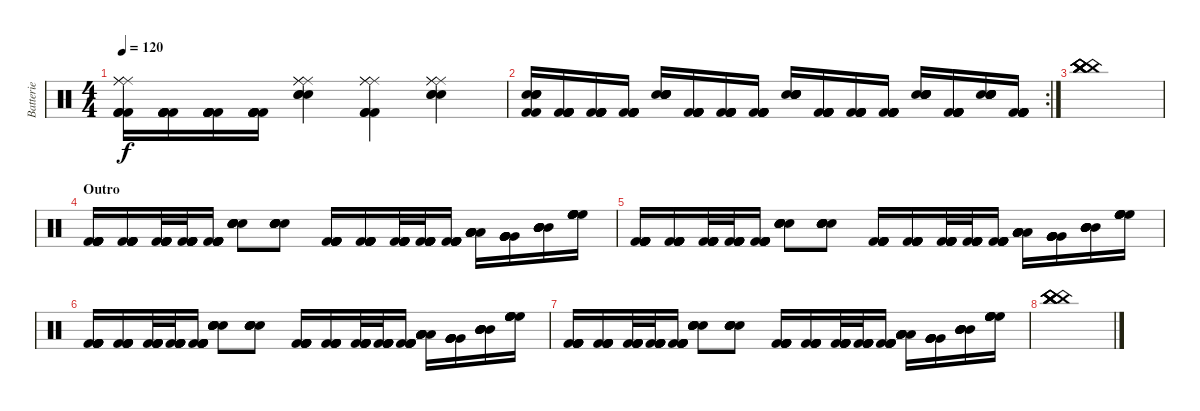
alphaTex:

\track ("Batterie" "Batterie") {instrument percussion}
\staff {score}
\articulation defaults
\ts (4 4)
\tempo 120
\clef neutral
\ks c
("Ride (middle)" "Ride (middle)" "Ride (middle)" "Kick (hit) 2" "Kick (hit) 2" "Kick (hit) 2").16{dy f} ("Kick (hit) 2" "Kick (hit) 2" "Kick (hit) 2" "Kick (hit) 2" "Kick (hit) 2" "Kick (hit) 2").16 ("Kick (hit) 2" "Kick (hit) 2" "Kick (hit) 2" "Kick (hit) 2" "Kick (hit) 2" "Kick (hit) 2").16 ("Kick (hit) 2" "Kick (hit) 2" "Kick (hit) 2" "Kick (hit) 2" "Kick (hit) 2" "Kick (hit) 2").16 ("Ride (middle)" "Ride (middle)" "Ride (middle)" "Snare (hit) 2" "Snare (hit) 2" "Snare (hit) 2").4 ("Kick (hit) 2" "Ride (middle)" "Ride (middle)" "Ride (middle)" "Kick (hit) 2" "Kick (hit) 2").4 ("Snare (hit) 2" "Snare (hit) 2" "Ride (middle)" "Ride (middle)" "Ride (middle)" "Snare (hit) 2").4 |
\rc 2
("Snare (hit) 2" "Snare (hit) 2" "Snare (hit) 2" "Snare (hit) 2" "Kick (hit) 2" "Kick (hit) 2").16 ("Kick (hit) 2" "Kick (hit) 2" "Kick (hit) 2" "Kick (hit) 2" "Kick (hit) 2" "Kick (hit) 2").16 ("Kick (hit) 2" "Kick (hit) 2" "Kick (hit) 2" "Kick (hit) 2" "Kick (hit) 2" "Kick (hit) 2").16 ("Kick (hit) 2" "Kick (hit) 2" "Kick (hit) 2" "Kick (hit) 2" "Kick (hit) 2" "Kick (hit) 2").16 ("Snare (hit) 2" "Snare (hit) 2" "Snare (hit) 2" "Snare (hit) 2" "Snare (hit) 2" "Snare (hit) 2").16 ("Kick (hit) 2" "Kick (hit) 2" "Kick (hit) 2" "Kick (hit) 2" "Kick (hit) 2" "Kick (hit) 2").16 ("Kick (hit) 2" "Kick (hit) 2" "Kick (hit) 2" "Kick (hit) 2" "Kick (hit) 2" "Kick (hit) 2").16 ("Kick (hit) 2" "Kick (hit) 2" "Kick (hit) 2" "Kick (hit) 2" "Kick (hit) 2" "Kick (hit) 2").16 ("Snare (hit) 2" "Snare (hit) 2" "Snare (hit) 2" "Snare (hit) 2" "Snare (hit) 2" "Snare (hit) 2").16 ("Kick (hit) 2" "Kick (hit) 2" "Kick (hit) 2" "Kick (hit) 2" "Kick (hit) 2" "Kick (hit) 2").16 ("Kick (hit) 2" "Kick (hit) 2" "Kick (hit) 2" "Kick (hit) 2" "Kick (hit) 2" "Kick (hit) 2").16 ("Kick (hit) 2" "Kick (hit) 2" "Kick (hit) 2" "Kick (hit) 2" "Kick (hit) 2" "Kick (hit) 2").16 ("Snare (hit) 2" "Snare (hit) 2" "Snare (hit) 2" "Snare (hit) 2" "Snare (hit) 2" "Snare (hit) 2").16 ("Kick (hit) 2" "Kick (hit) 2" "Kick (hit) 2" "Kick (hit) 2" "Kick (hit) 2" "Kick (hit) 2").16 ("Snare (hit) 2" "Snare (hit) 2" "Snare (hit) 2" "Snare (hit) 2" "Snare (hit) 2" "Snare (hit) 2").16 ("Kick (hit) 2" "Kick (hit) 2" "Kick (hit) 2" "Kick (hit) 2" "Kick (hit) 2" "Kick (hit) 2").16 |
("China (hit)" "China (hit)" "China (hit)" "China (hit)" "China (hit)" "China (hit)").1 |
\section ("" "Outro")
("Kick (hit) 2" "Kick (hit) 2" "Kick (hit) 2" "Kick (hit) 2" "Kick (hit) 2" "Kick (hit) 2").16 ("Kick (hit) 2" "Kick (hit) 2" "Kick (hit) 2" "Kick (hit) 2" "Kick (hit) 2" "Kick (hit) 2").16 ("Kick (hit) 2" "Kick (hit) 2" "Kick (hit) 2" "Kick (hit) 2" "Kick (hit) 2" "Kick (hit) 2").32 ("Kick (hit) 2" "Kick (hit) 2" "Kick (hit) 2" "Kick (hit) 2" "Kick (hit) 2" "Kick (hit) 2").32 ("Kick (hit) 2" "Kick (hit) 2" "Kick (hit) 2" "Kick (hit) 2" "Kick (hit) 2" "Kick (hit) 2").16 ("Snare (hit) 2" "Snare (hit) 2" "Snare (hit) 2" "Snare (hit) 2" "Snare (hit) 2" "Snare (hit) 2").8 ("Snare (hit) 2" "Snare (hit) 2" "Snare (hit) 2" "Snare (hit) 2" "Snare (hit) 2" "Snare (hit) 2").8 ("Kick (hit) 2" "Kick (hit) 2" "Kick (hit) 2" "Kick (hit) 2" "Kick (hit) 2" "Kick (hit) 2").16 ("Kick (hit) 2" "Kick (hit) 2" "Kick (hit) 2" "Kick (hit) 2" "Kick (hit) 2" "Kick (hit) 2").16 ("Kick (hit) 2" "Kick (hit) 2" "Kick (hit) 2" "Kick (hit) 2" "Kick (hit) 2" "Kick (hit) 2").32 ("Kick (hit) 2" "Kick (hit) 2" "Kick (hit) 2" "Kick (hit) 2" "Kick (hit) 2" "Kick (hit) 2").32 ("Kick (hit) 2" "Kick (hit) 2" "Kick (hit) 2" "Kick (hit) 2" "Kick (hit) 2" "Kick (hit) 2").16 ("Low Floor Tom (hit)" "Low Floor Tom (hit)" "Low Floor Tom (hit)" "Low Floor Tom (hit)" "Low Floor Tom (hit)" "Low Floor Tom (hit)").16 ("Very Low Tom (hit)" "Very Low Tom (hit)" "Very Low Tom (hit)" "Very Low Tom (hit)" "Very Low Tom (hit)" "Very Low Tom (hit)").16 ("Mid Tom (hit)" "Mid Tom (hit)" "Mid Tom (hit)" "Mid Tom (hit)" "Mid Tom (hit)" "Mid Tom (hit)").16 ("High Floor Tom (hit)" "High Floor Tom (hit)" "High Floor Tom (hit)" "High Floor Tom (hit)" "High Floor Tom (hit)" "High Floor Tom (hit)").16 |
("Kick (hit) 2" "Kick (hit) 2" "Kick (hit) 2" "Kick (hit) 2" "Kick (hit) 2" "Kick (hit) 2").16 ("Kick (hit) 2" "Kick (hit) 2" "Kick (hit) 2" "Kick (hit) 2" "Kick (hit) 2" "Kick (hit) 2").16 ("Kick (hit) 2" "Kick (hit) 2" "Kick (hit) 2" "Kick (hit) 2" "Kick (hit) 2" "Kick (hit) 2").32 ("Kick (hit) 2" "Kick (hit) 2" "Kick (hit) 2" "Kick (hit) 2" "Kick (hit) 2" "Kick (hit) 2").32 ("Kick (hit) 2" "Kick (hit) 2" "Kick (hit) 2" "Kick (hit) 2" "Kick (hit) 2" "Kick (hit) 2").16 ("Snare (hit) 2" "Snare (hit) 2" "Snare (hit) 2" "Snare (hit) 2" "Snare (hit) 2" "Snare (hit) 2").8 ("Snare (hit) 2" "Snare (hit) 2" "Snare (hit) 2" "Snare (hit) 2" "Snare (hit) 2" "Snare (hit) 2").8 ("Kick (hit) 2" "Kick (hit) 2" "Kick (hit) 2" "Kick (hit) 2" "Kick (hit) 2" "Kick (hit) 2").16 ("Kick (hit) 2" "Kick (hit) 2" "Kick (hit) 2" "Kick (hit) 2" "Kick (hit) 2" "Kick (hit) 2").16 ("Kick (hit) 2" "Kick (hit) 2" "Kick (hit) 2" "Kick (hit) 2" "Kick (hit) 2" "Kick (hit) 2").32 ("Kick (hit) 2" "Kick (hit) 2" "Kick (hit) 2" "Kick (hit) 2" "Kick (hit) 2" "Kick (hit) 2").32 ("Kick (hit) 2" "Kick (hit) 2" "Kick (hit) 2" "Kick (hit) 2" "Kick (hit) 2" "Kick (hit) 2").16 ("Low Floor Tom (hit)" "Low Floor Tom (hit)" "Low Floor Tom (hit)" "Low Floor Tom (hit)" "Low Floor Tom (hit)" "Low Floor Tom (hit)").16 ("Very Low Tom (hit)" "Very Low Tom (hit)" "Very Low Tom (hit)" "Very Low Tom (hit)" "Very Low Tom (hit)" "Very Low Tom (hit)").16 ("Mid Tom (hit)" "Mid Tom (hit)" "Mid Tom (hit)" "Mid Tom (hit)" "Mid Tom (hit)" "Mid Tom (hit)").16 ("High Floor Tom (hit)" "High Floor Tom (hit)" "High Floor Tom (hit)" "High Floor Tom (hit)" "High Floor Tom (hit)" "High Floor Tom (hit)").16 |
("Kick (hit) 2" "Kick (hit) 2" "Kick (hit) 2" "Kick (hit) 2" "Kick (hit) 2" "Kick (hit) 2").16 ("Kick (hit) 2" "Kick (hit) 2" "Kick (hit) 2" "Kick (hit) 2" "Kick (hit) 2" "Kick (hit) 2").16 ("Kick (hit) 2" "Kick (hit) 2" "Kick (hit) 2" "Kick (hit) 2" "Kick (hit) 2" "Kick (hit) 2").32 ("Kick (hit) 2" "Kick (hit) 2" "Kick (hit) 2" "Kick (hit) 2" "Kick (hit) 2" "Kick (hit) 2").32 ("Kick (hit) 2" "Kick (hit) 2" "Kick (hit) 2" "Kick (hit) 2" "Kick (hit) 2" "Kick (hit) 2").16 ("Snare (hit) 2" "Snare (hit) 2" "Snare (hit) 2" "Snare (hit) 2" "Snare (hit) 2" "Snare (hit) 2").8 ("Snare (hit) 2" "Snare (hit) 2" "Snare (hit) 2" "Snare (hit) 2" "Snare (hit) 2" "Snare (hit) 2").8 ("Kick (hit) 2" "Kick (hit) 2" "Kick (hit) 2" "Kick (hit) 2" "Kick (hit) 2" "Kick (hit) 2").16 ("Kick (hit) 2" "Kick (hit) 2" "Kick (hit) 2" "Kick (hit) 2" "Kick (hit) 2" "Kick (hit) 2").16 ("Kick (hit) 2" "Kick (hit) 2" "Kick (hit) 2" "Kick (hit) 2" "Kick (hit) 2" "Kick (hit) 2").32 ("Kick (hit) 2" "Kick (hit) 2" "Kick (hit) 2" "Kick (hit) 2" "Kick (hit) 2" "Kick (hit) 2").32 ("Kick (hit) 2" "Kick (hit) 2" "Kick (hit) 2" "Kick (hit) 2" "Kick (hit) 2" "Kick (hit) 2").16 ("Low Floor Tom (hit)" "Low Floor Tom (hit)" "Low Floor Tom (hit)" "Low Floor Tom (hit)" "Low Floor Tom (hit)" "Low Floor Tom (hit)").16 ("Very Low Tom (hit)" "Very Low Tom (hit)" "Very Low Tom (hit)" "Very Low Tom (hit)" "Very Low Tom (hit)" "Very Low Tom (hit)").16 ("Mid Tom (hit)" "Mid Tom (hit)" "Mid Tom (hit)" "Mid Tom (hit)" "Mid Tom (hit)" "Mid Tom (hit)").16 ("High Floor Tom (hit)" "High Floor Tom (hit)" "High Floor Tom (hit)" "High Floor Tom (hit)" "High Floor Tom (hit)" "High Floor Tom (hit)").16 |
("Kick (hit) 2" "Kick (hit) 2" "Kick (hit) 2" "Kick (hit) 2" "Kick (hit) 2" "Kick (hit) 2").16 ("Kick (hit) 2" "Kick (hit) 2" "Kick (hit) 2" "Kick (hit) 2" "Kick (hit) 2" "Kick (hit) 2").16 ("Kick (hit) 2" "Kick (hit) 2" "Kick (hit) 2" "Kick (hit) 2" "Kick (hit) 2" "Kick (hit) 2").32 ("Kick (hit) 2" "Kick (hit) 2" "Kick (hit) 2" "Kick (hit) 2" "Kick (hit) 2" "Kick (hit) 2").32 ("Kick (hit) 2" "Kick (hit) 2" "Kick (hit) 2" "Kick (hit) 2" "Kick (hit) 2" "Kick (hit) 2").16 ("Snare (hit) 2" "Snare (hit) 2" "Snare (hit) 2" "Snare (hit) 2" "Snare (hit) 2" "Snare (hit) 2").8 ("Snare (hit) 2" "Snare (hit) 2" "Snare (hit) 2" "Snare (hit) 2" "Snare (hit) 2" "Snare (hit) 2").8 ("Kick (hit) 2" "Kick (hit) 2" "Kick (hit) 2" "Kick (hit) 2" "Kick (hit) 2" "Kick (hit) 2").16 ("Kick (hit) 2" "Kick (hit) 2" "Kick (hit) 2" "Kick (hit) 2" "Kick (hit) 2" "Kick (hit) 2").16 ("Kick (hit) 2" "Kick (hit) 2" "Kick (hit) 2" "Kick (hit) 2" "Kick (hit) 2" "Kick (hit) 2").32 ("Kick (hit) 2" "Kick (hit) 2" "Kick (hit) 2" "Kick (hit) 2" "Kick (hit) 2" "Kick (hit) 2").32 ("Kick (hit) 2" "Kick (hit) 2" "Kick (hit) 2" "Kick (hit) 2" "Kick (hit) 2" "Kick (hit) 2").16 ("Low Floor Tom (hit)" "Low Floor Tom (hit)" "Low Floor Tom (hit)" "Low Floor Tom (hit)" "Low Floor Tom (hit)" "Low Floor Tom (hit)").16 ("Very Low Tom (hit)" "Very Low Tom (hit)" "Very Low Tom (hit)" "Very Low Tom (hit)" "Very Low Tom (hit)" "Very Low Tom (hit)").16 ("Mid Tom (hit)" "Mid Tom (hit)" "Mid Tom (hit)" "Mid Tom (hit)" "Mid Tom (hit)" "Mid Tom (hit)").16 ("High Floor Tom (hit)" "High Floor Tom (hit)" "High Floor Tom (hit)" "High Floor Tom (hit)" "High Floor Tom (hit)" "High Floor Tom (hit)").16 |
("China (hit)" "China (hit)" "China (hit)" "China (hit)" "China (hit)" "China (hit)").1
